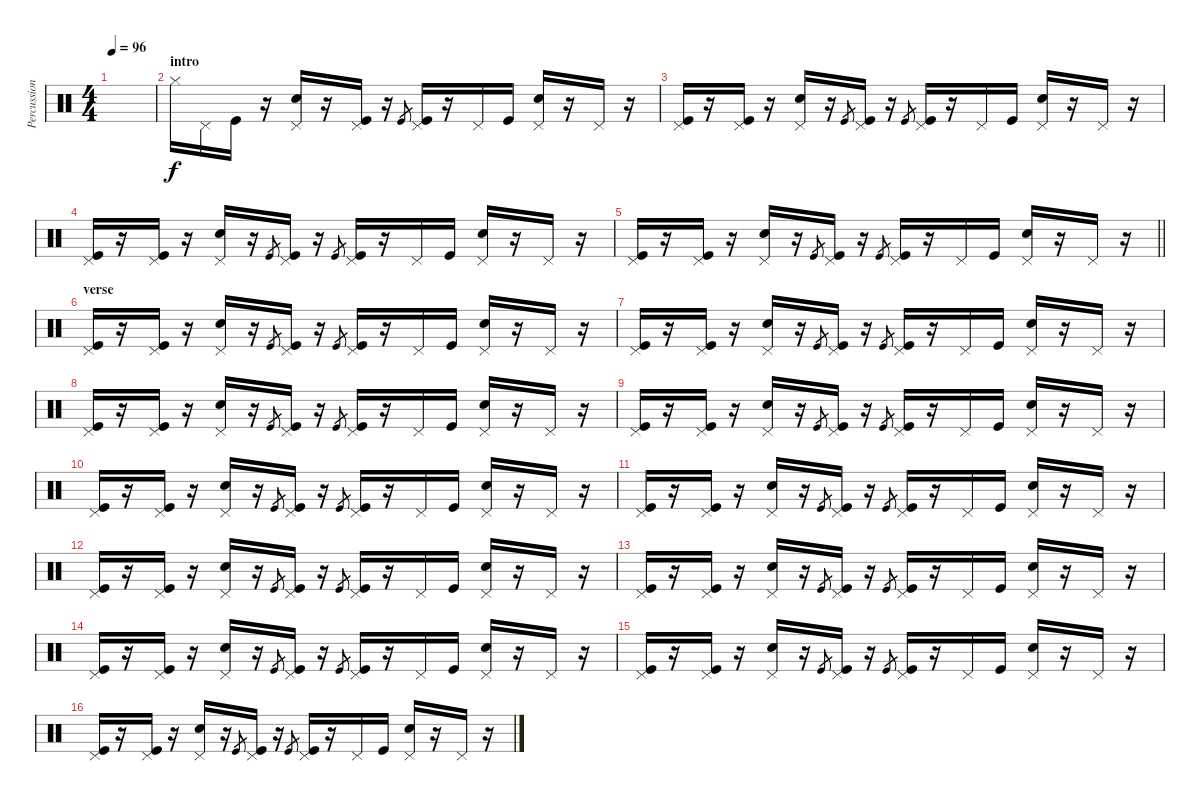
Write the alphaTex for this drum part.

\track ("Percussions" "Percussion") {instrument percussion}
\staff {score}
\articulation defaults
\ts (4 4)
\tempo 96
\clef neutral
\ks c
|
\section ("" "intro")
"Hi-Hat (closed)".16 "Pedal Hi-Hat (hit)".16 "Kick (hit)".16 r.16 ("Pedal Hi-Hat (hit)" "Electric Snare (hit)").16 r.16 ("Pedal Hi-Hat (hit)" "Kick (hit)").16 r.16 "Kick (hit)".8{gr} ("Pedal Hi-Hat (hit)" "Kick (hit)").16 r.16 "Pedal Hi-Hat (hit)".16 "Kick (hit)".16 ("Pedal Hi-Hat (hit)" "Electric Snare (hit)").16 r.16 "Pedal Hi-Hat (hit)".16 r.16 |
("Pedal Hi-Hat (hit)" "Kick (hit)").16 r.16 ("Pedal Hi-Hat (hit)" "Kick (hit)").16 r.16 ("Pedal Hi-Hat (hit)" "Electric Snare (hit)").16 r.16 "Kick (hit)".8{gr} ("Pedal Hi-Hat (hit)" "Kick (hit)").16 r.16 "Kick (hit)".8{gr} ("Pedal Hi-Hat (hit)" "Kick (hit)").16 r.16 "Pedal Hi-Hat (hit)".16 "Kick (hit)".16 ("Pedal Hi-Hat (hit)" "Electric Snare (hit)").16 r.16 "Pedal Hi-Hat (hit)".16 r.16 |
("Pedal Hi-Hat (hit)" "Kick (hit)").16 r.16 ("Pedal Hi-Hat (hit)" "Kick (hit)").16 r.16 ("Pedal Hi-Hat (hit)" "Electric Snare (hit)").16 r.16 "Kick (hit)".8{gr} ("Pedal Hi-Hat (hit)" "Kick (hit)").16 r.16 "Kick (hit)".8{gr} ("Pedal Hi-Hat (hit)" "Kick (hit)").16 r.16 "Pedal Hi-Hat (hit)".16 "Kick (hit)".16 ("Pedal Hi-Hat (hit)" "Electric Snare (hit)").16 r.16 "Pedal Hi-Hat (hit)".16 r.16 |
\barLineRight lightlight
("Pedal Hi-Hat (hit)" "Kick (hit)").16 r.16 ("Pedal Hi-Hat (hit)" "Kick (hit)").16 r.16 ("Pedal Hi-Hat (hit)" "Electric Snare (hit)").16 r.16 "Kick (hit)".8{gr} ("Pedal Hi-Hat (hit)" "Kick (hit)").16 r.16 "Kick (hit)".8{gr} ("Pedal Hi-Hat (hit)" "Kick (hit)").16 r.16 "Pedal Hi-Hat (hit)".16 "Kick (hit)".16 ("Pedal Hi-Hat (hit)" "Electric Snare (hit)").16 r.16 "Pedal Hi-Hat (hit)".16 r.16 |
\section ("" "verse")
("Pedal Hi-Hat (hit)" "Kick (hit)").16 r.16 ("Pedal Hi-Hat (hit)" "Kick (hit)").16 r.16 ("Pedal Hi-Hat (hit)" "Electric Snare (hit)").16 r.16 "Kick (hit)".8{gr} ("Pedal Hi-Hat (hit)" "Kick (hit)").16 r.16 "Kick (hit)".8{gr} ("Pedal Hi-Hat (hit)" "Kick (hit)").16 r.16 "Pedal Hi-Hat (hit)".16 "Kick (hit)".16 ("Pedal Hi-Hat (hit)" "Electric Snare (hit)").16 r.16 "Pedal Hi-Hat (hit)".16 r.16 |
("Pedal Hi-Hat (hit)" "Kick (hit)").16 r.16 ("Pedal Hi-Hat (hit)" "Kick (hit)").16 r.16 ("Pedal Hi-Hat (hit)" "Electric Snare (hit)").16 r.16 "Kick (hit)".8{gr} ("Pedal Hi-Hat (hit)" "Kick (hit)").16 r.16 "Kick (hit)".8{gr} ("Pedal Hi-Hat (hit)" "Kick (hit)").16 r.16 "Pedal Hi-Hat (hit)".16 "Kick (hit)".16 ("Pedal Hi-Hat (hit)" "Electric Snare (hit)").16 r.16 "Pedal Hi-Hat (hit)".16 r.16 |
("Pedal Hi-Hat (hit)" "Kick (hit)").16 r.16 ("Pedal Hi-Hat (hit)" "Kick (hit)").16 r.16 ("Pedal Hi-Hat (hit)" "Electric Snare (hit)").16 r.16 "Kick (hit)".8{gr} ("Pedal Hi-Hat (hit)" "Kick (hit)").16 r.16 "Kick (hit)".8{gr} ("Pedal Hi-Hat (hit)" "Kick (hit)").16 r.16 "Pedal Hi-Hat (hit)".16 "Kick (hit)".16 ("Pedal Hi-Hat (hit)" "Electric Snare (hit)").16 r.16 "Pedal Hi-Hat (hit)".16 r.16 |
("Pedal Hi-Hat (hit)" "Kick (hit)").16 r.16 ("Pedal Hi-Hat (hit)" "Kick (hit)").16 r.16 ("Pedal Hi-Hat (hit)" "Electric Snare (hit)").16 r.16 "Kick (hit)".8{gr} ("Pedal Hi-Hat (hit)" "Kick (hit)").16 r.16 "Kick (hit)".8{gr} ("Pedal Hi-Hat (hit)" "Kick (hit)").16 r.16 "Pedal Hi-Hat (hit)".16 "Kick (hit)".16 ("Pedal Hi-Hat (hit)" "Electric Snare (hit)").16 r.16 "Pedal Hi-Hat (hit)".16 r.16 |
("Pedal Hi-Hat (hit)" "Kick (hit)").16 r.16 ("Pedal Hi-Hat (hit)" "Kick (hit)").16 r.16 ("Pedal Hi-Hat (hit)" "Electric Snare (hit)").16 r.16 "Kick (hit)".8{gr} ("Pedal Hi-Hat (hit)" "Kick (hit)").16 r.16 "Kick (hit)".8{gr} ("Pedal Hi-Hat (hit)" "Kick (hit)").16 r.16 "Pedal Hi-Hat (hit)".16 "Kick (hit)".16 ("Pedal Hi-Hat (hit)" "Electric Snare (hit)").16 r.16 "Pedal Hi-Hat (hit)".16 r.16 |
("Pedal Hi-Hat (hit)" "Kick (hit)").16 r.16 ("Pedal Hi-Hat (hit)" "Kick (hit)").16 r.16 ("Pedal Hi-Hat (hit)" "Electric Snare (hit)").16 r.16 "Kick (hit)".8{gr} ("Pedal Hi-Hat (hit)" "Kick (hit)").16 r.16 "Kick (hit)".8{gr} ("Pedal Hi-Hat (hit)" "Kick (hit)").16 r.16 "Pedal Hi-Hat (hit)".16 "Kick (hit)".16 ("Pedal Hi-Hat (hit)" "Electric Snare (hit)").16 r.16 "Pedal Hi-Hat (hit)".16 r.16 |
("Pedal Hi-Hat (hit)" "Kick (hit)").16 r.16 ("Pedal Hi-Hat (hit)" "Kick (hit)").16 r.16 ("Pedal Hi-Hat (hit)" "Electric Snare (hit)").16 r.16 "Kick (hit)".8{gr} ("Pedal Hi-Hat (hit)" "Kick (hit)").16 r.16 "Kick (hit)".8{gr} ("Pedal Hi-Hat (hit)" "Kick (hit)").16 r.16 "Pedal Hi-Hat (hit)".16 "Kick (hit)".16 ("Pedal Hi-Hat (hit)" "Electric Snare (hit)").16 r.16 "Pedal Hi-Hat (hit)".16 r.16 |
("Pedal Hi-Hat (hit)" "Kick (hit)").16 r.16 ("Pedal Hi-Hat (hit)" "Kick (hit)").16 r.16 ("Pedal Hi-Hat (hit)" "Electric Snare (hit)").16 r.16 "Kick (hit)".8{gr} ("Pedal Hi-Hat (hit)" "Kick (hit)").16 r.16 "Kick (hit)".8{gr} ("Pedal Hi-Hat (hit)" "Kick (hit)").16 r.16 "Pedal Hi-Hat (hit)".16 "Kick (hit)".16 ("Pedal Hi-Hat (hit)" "Electric Snare (hit)").16 r.16 "Pedal Hi-Hat (hit)".16 r.16 |
("Pedal Hi-Hat (hit)" "Kick (hit)").16 r.16 ("Pedal Hi-Hat (hit)" "Kick (hit)").16 r.16 ("Pedal Hi-Hat (hit)" "Electric Snare (hit)").16 r.16 "Kick (hit)".8{gr} ("Pedal Hi-Hat (hit)" "Kick (hit)").16 r.16 "Kick (hit)".8{gr} ("Pedal Hi-Hat (hit)" "Kick (hit)").16 r.16 "Pedal Hi-Hat (hit)".16 "Kick (hit)".16 ("Pedal Hi-Hat (hit)" "Electric Snare (hit)").16 r.16 "Pedal Hi-Hat (hit)".16 r.16 |
("Pedal Hi-Hat (hit)" "Kick (hit)").16 r.16 ("Pedal Hi-Hat (hit)" "Kick (hit)").16 r.16 ("Pedal Hi-Hat (hit)" "Electric Snare (hit)").16 r.16 "Kick (hit)".8{gr} ("Pedal Hi-Hat (hit)" "Kick (hit)").16 r.16 "Kick (hit)".8{gr} ("Pedal Hi-Hat (hit)" "Kick (hit)").16 r.16 "Pedal Hi-Hat (hit)".16 "Kick (hit)".16 ("Pedal Hi-Hat (hit)" "Electric Snare (hit)").16 r.16 "Pedal Hi-Hat (hit)".16 r.16 |
("Pedal Hi-Hat (hit)" "Kick (hit)").16 r.16 ("Pedal Hi-Hat (hit)" "Kick (hit)").16 r.16 ("Pedal Hi-Hat (hit)" "Electric Snare (hit)").16 r.16 "Kick (hit)".8{gr} ("Pedal Hi-Hat (hit)" "Kick (hit)").16 r.16 "Kick (hit)".8{gr} ("Pedal Hi-Hat (hit)" "Kick (hit)").16 r.16 "Pedal Hi-Hat (hit)".16 "Kick (hit)".16 ("Pedal Hi-Hat (hit)" "Electric Snare (hit)").16 r.16 "Pedal Hi-Hat (hit)".16 r.16
